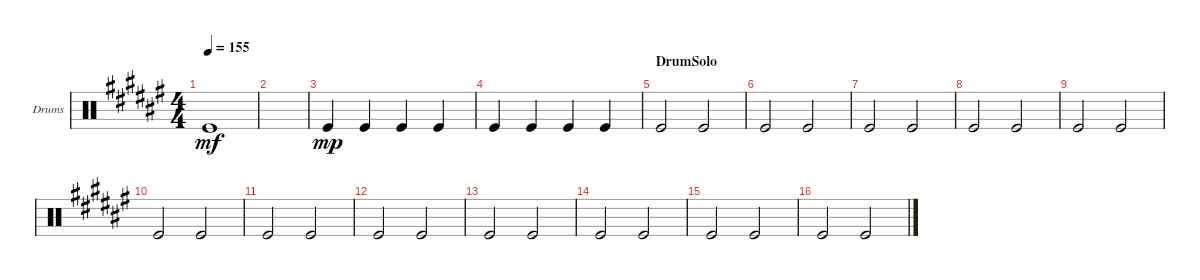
\bracketExtendMode groupsimilarinstruments
\firstSystemTrackNameOrientation horizontal
\otherSystemsTrackNameOrientation horizontal
\track ("Kick" "Drums") {instrument percussion}
\staff {score}
\articulation defaults
\ts (4 4)
\tempo 155
\clef neutral
\ks f# "Kick (hit)".1{dy mf}
|
|
"Kick (hit)".4{dy mp} "Kick (hit)".4 "Kick (hit)".4 "Kick (hit)".4 |
"Kick (hit)".4 "Kick (hit)".4 "Kick (hit)".4 "Kick (hit)".4 |
\section ("" "DrumSolo")
"Kick (hit)".2 "Kick (hit)".2 |
"Kick (hit)".2 "Kick (hit)".2 |
"Kick (hit)".2 "Kick (hit)".2 |
"Kick (hit)".2 "Kick (hit)".2 |
"Kick (hit)".2 "Kick (hit)".2 |
"Kick (hit)".2 "Kick (hit)".2 |
"Kick (hit)".2 "Kick (hit)".2 |
"Kick (hit)".2 "Kick (hit)".2 |
"Kick (hit)".2 "Kick (hit)".2 |
"Kick (hit)".2 "Kick (hit)".2 |
"Kick (hit)".2 "Kick (hit)".2 |
"Kick (hit)".2 "Kick (hit)".2
